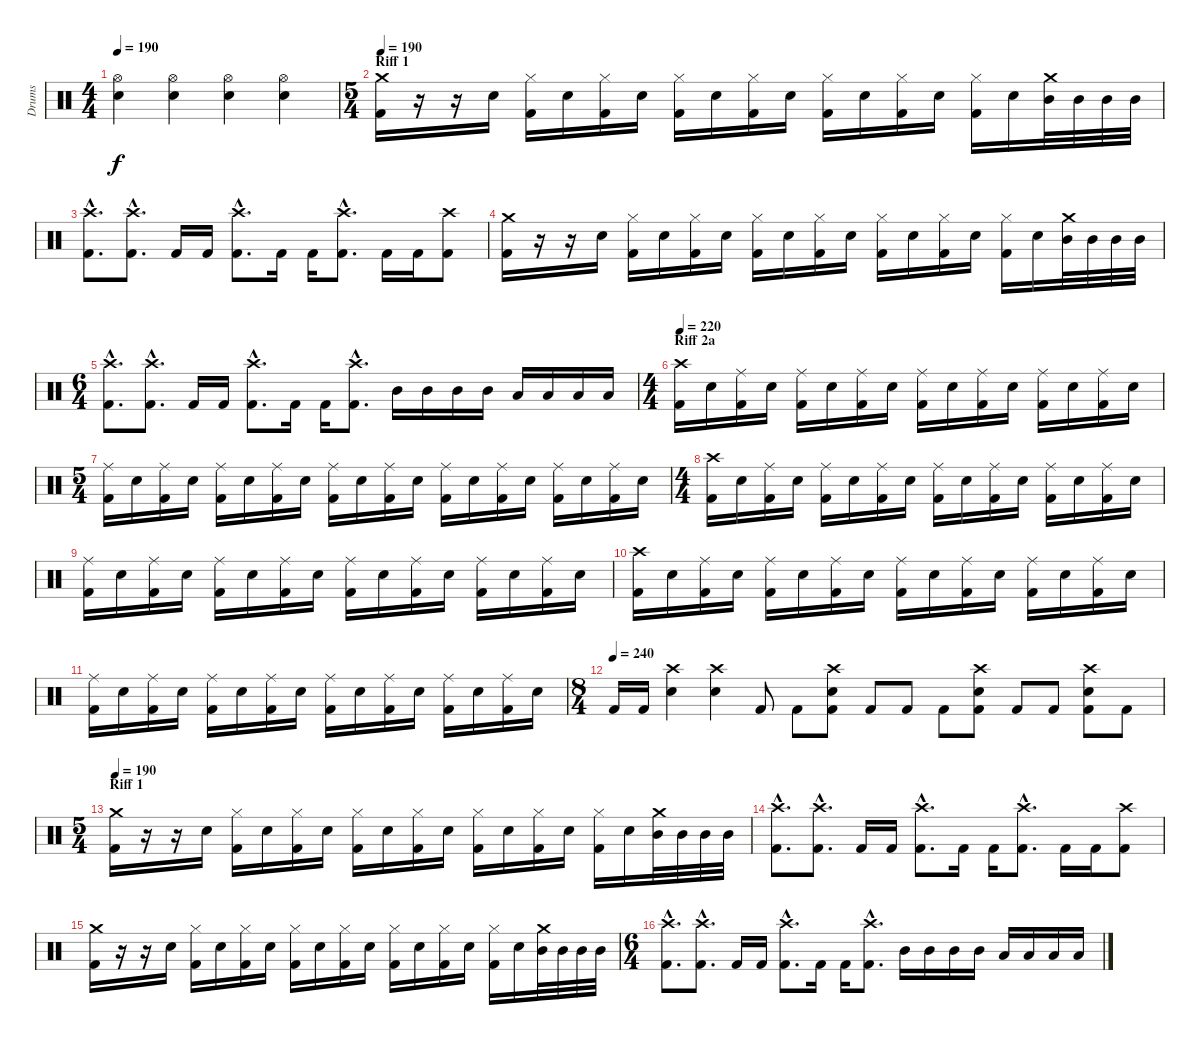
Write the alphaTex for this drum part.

\track ("Drums" "Drums") {instrument percussion}
\staff {score}
\articulation defaults
\ts (4 4)
\tempo 190
\clef neutral
\ks c
("Hi-Hat (open)" "Electric Snare (hit)").4{dy f} ("Hi-Hat (open)" "Electric Snare (hit)").4 ("Hi-Hat (open)" "Electric Snare (hit)").4 ("Hi-Hat (open)" "Electric Snare (hit)").4 |
\ts (5 4)
\section ("" "Riff 1")
\tempo 190
("Crash medium (hit)" "Kick (hit) 2").16 r.16 r.16 "Electric Snare (hit)".16 ("Hi-Hat (closed)" "Kick (hit) 2").16 "Electric Snare (hit)".16 ("Hi-Hat (closed)" "Kick (hit) 2").16 "Electric Snare (hit)".16 ("Hi-Hat (closed)" "Kick (hit) 2").16 "Electric Snare (hit)".16 ("Hi-Hat (closed)" "Kick (hit) 2").16 "Electric Snare (hit)".16 ("Hi-Hat (closed)" "Kick (hit) 2").16 "Electric Snare (hit)".16 ("Hi-Hat (closed)" "Kick (hit) 2").16 "Electric Snare (hit)".16 ("Hi-Hat (closed)" "Kick (hit) 2").16 "Electric Snare (hit)".16 ("Crash medium (hit)" "Mid Tom (hit)").32 "Mid Tom (hit)".32 "Mid Tom (hit)".32 "Mid Tom (hit)".32 |
("Crash high (hit)"{hac} "Kick (hit) 2"{hac}).8{d} ("Crash high (hit)"{hac} "Kick (hit) 2"{hac}).8{d} "Kick (hit) 2".16 "Kick (hit) 2".16 ("Crash high (hit)"{hac} "Kick (hit) 2"{hac}).8{d} "Kick (hit) 2".16 "Kick (hit) 2".16 ("Crash high (hit)"{hac} "Kick (hit) 2"{hac}).8{d} "Kick (hit) 2".16 "Kick (hit) 2".16 ("Crash high (hit)" "Kick (hit) 2").8 |
("Crash medium (hit)" "Kick (hit) 2").16 r.16 r.16 "Electric Snare (hit)".16 ("Hi-Hat (closed)" "Kick (hit) 2").16 "Electric Snare (hit)".16 ("Hi-Hat (closed)" "Kick (hit) 2").16 "Electric Snare (hit)".16 ("Hi-Hat (closed)" "Kick (hit) 2").16 "Electric Snare (hit)".16 ("Hi-Hat (closed)" "Kick (hit) 2").16 "Electric Snare (hit)".16 ("Hi-Hat (closed)" "Kick (hit) 2").16 "Electric Snare (hit)".16 ("Hi-Hat (closed)" "Kick (hit) 2").16 "Electric Snare (hit)".16 ("Hi-Hat (closed)" "Kick (hit) 2").16 "Electric Snare (hit)".16 ("Crash medium (hit)" "Mid Tom (hit)").32 "Mid Tom (hit)".32 "Mid Tom (hit)".32 "Mid Tom (hit)".32 |
\ts (6 4)
("Crash high (hit)"{hac} "Kick (hit) 2"{hac}).8{d} ("Crash high (hit)"{hac} "Kick (hit) 2"{hac}).8{d} "Kick (hit) 2".16 "Kick (hit) 2".16 ("Crash high (hit)"{hac} "Kick (hit) 2"{hac}).8{d} "Kick (hit) 2".16 "Kick (hit) 2".16 ("Crash high (hit)"{hac} "Kick (hit) 2"{hac}).8{d} "Mid Tom (hit)".16 "Mid Tom (hit)".16 "Mid Tom (hit)".16 "Mid Tom (hit)".16 "Low Tom (hit)".16 "Low Tom (hit)".16 "Low Tom (hit)".16 "Low Tom (hit)".16 |
\ts (4 4)
\section ("" "Riff 2a")
\tempo 220
("Crash high (hit)" "Kick (hit) 2").16 "Electric Snare (hit)".16 ("Ride (middle)" "Kick (hit) 2").16 "Electric Snare (hit)".16 ("Ride (middle)" "Kick (hit) 2").16 "Electric Snare (hit)".16 ("Ride (middle)" "Kick (hit) 2").16 "Electric Snare (hit)".16 ("Ride (middle)" "Kick (hit) 2").16 "Electric Snare (hit)".16 ("Ride (middle)" "Kick (hit) 2").16 "Electric Snare (hit)".16 ("Ride (middle)" "Kick (hit) 2").16 "Electric Snare (hit)".16 ("Ride (middle)" "Kick (hit) 2").16 "Electric Snare (hit)".16 |
\ts (5 4)
("Ride (middle)" "Kick (hit) 2").16 "Electric Snare (hit)".16 ("Ride (middle)" "Kick (hit) 2").16 "Electric Snare (hit)".16 ("Ride (middle)" "Kick (hit) 2").16 "Electric Snare (hit)".16 ("Ride (middle)" "Kick (hit) 2").16 "Electric Snare (hit)".16 ("Ride (middle)" "Kick (hit) 2").16 "Electric Snare (hit)".16 ("Ride (middle)" "Kick (hit) 2").16 "Electric Snare (hit)".16 ("Ride (middle)" "Kick (hit) 2").16 "Electric Snare (hit)".16 ("Ride (middle)" "Kick (hit) 2").16 "Electric Snare (hit)".16 ("Ride (middle)" "Kick (hit) 2").16 "Electric Snare (hit)".16 ("Ride (middle)" "Kick (hit) 2").16 "Electric Snare (hit)".16 |
\ts (4 4)
("Crash high (hit)" "Kick (hit) 2").16 "Electric Snare (hit)".16 ("Ride (middle)" "Kick (hit) 2").16 "Electric Snare (hit)".16 ("Ride (middle)" "Kick (hit) 2").16 "Electric Snare (hit)".16 ("Ride (middle)" "Kick (hit) 2").16 "Electric Snare (hit)".16 ("Ride (middle)" "Kick (hit) 2").16 "Electric Snare (hit)".16 ("Ride (middle)" "Kick (hit) 2").16 "Electric Snare (hit)".16 ("Ride (middle)" "Kick (hit) 2").16 "Electric Snare (hit)".16 ("Ride (middle)" "Kick (hit) 2").16 "Electric Snare (hit)".16 |
("Ride (middle)" "Kick (hit) 2").16 "Electric Snare (hit)".16 ("Ride (middle)" "Kick (hit) 2").16 "Electric Snare (hit)".16 ("Ride (middle)" "Kick (hit) 2").16 "Electric Snare (hit)".16 ("Ride (middle)" "Kick (hit) 2").16 "Electric Snare (hit)".16 ("Ride (middle)" "Kick (hit) 2").16 "Electric Snare (hit)".16 ("Ride (middle)" "Kick (hit) 2").16 "Electric Snare (hit)".16 ("Ride (middle)" "Kick (hit) 2").16 "Electric Snare (hit)".16 ("Ride (middle)" "Kick (hit) 2").16 "Electric Snare (hit)".16 |
("Crash high (hit)" "Kick (hit) 2").16 "Electric Snare (hit)".16 ("Ride (middle)" "Kick (hit) 2").16 "Electric Snare (hit)".16 ("Ride (middle)" "Kick (hit) 2").16 "Electric Snare (hit)".16 ("Ride (middle)" "Kick (hit) 2").16 "Electric Snare (hit)".16 ("Ride (middle)" "Kick (hit) 2").16 "Electric Snare (hit)".16 ("Ride (middle)" "Kick (hit) 2").16 "Electric Snare (hit)".16 ("Ride (middle)" "Kick (hit) 2").16 "Electric Snare (hit)".16 ("Ride (middle)" "Kick (hit) 2").16 "Electric Snare (hit)".16 |
("Ride (middle)" "Kick (hit) 2").16 "Electric Snare (hit)".16 ("Ride (middle)" "Kick (hit) 2").16 "Electric Snare (hit)".16 ("Ride (middle)" "Kick (hit) 2").16 "Electric Snare (hit)".16 ("Ride (middle)" "Kick (hit) 2").16 "Electric Snare (hit)".16 ("Ride (middle)" "Kick (hit) 2").16 "Electric Snare (hit)".16 ("Ride (middle)" "Kick (hit) 2").16 "Electric Snare (hit)".16 ("Ride (middle)" "Kick (hit) 2").16 "Electric Snare (hit)".16 ("Ride (middle)" "Kick (hit) 2").16 "Electric Snare (hit)".16 |
\ts (8 4)
\tempo (240)
"Kick (hit) 2".16 "Kick (hit) 2".16 ("Crash high (hit)" "Electric Snare (hit)").4 ("Crash high (hit)" "Electric Snare (hit)").4 "Kick (hit) 2".8 "Kick (hit) 2".8 ("Crash high (hit)" "Electric Snare (hit)" "Kick (hit) 2").8 "Kick (hit) 2".8 "Kick (hit) 2".8 "Kick (hit) 2".8 ("Crash high (hit)" "Electric Snare (hit)" "Kick (hit) 2").8 "Kick (hit) 2".8 "Kick (hit) 2".8 ("Crash high (hit)" "Electric Snare (hit)" "Kick (hit) 2").8 "Kick (hit) 2".8 |
\ts (5 4)
\section ("" "Riff 1")
\tempo 190
("Crash medium (hit)" "Kick (hit) 2").16 r.16 r.16 "Electric Snare (hit)".16 ("Hi-Hat (closed)" "Kick (hit) 2").16 "Electric Snare (hit)".16 ("Hi-Hat (closed)" "Kick (hit) 2").16 "Electric Snare (hit)".16 ("Hi-Hat (closed)" "Kick (hit) 2").16 "Electric Snare (hit)".16 ("Hi-Hat (closed)" "Kick (hit) 2").16 "Electric Snare (hit)".16 ("Hi-Hat (closed)" "Kick (hit) 2").16 "Electric Snare (hit)".16 ("Hi-Hat (closed)" "Kick (hit) 2").16 "Electric Snare (hit)".16 ("Hi-Hat (closed)" "Kick (hit) 2").16 "Electric Snare (hit)".16 ("Crash medium (hit)" "Mid Tom (hit)").32 "Mid Tom (hit)".32 "Mid Tom (hit)".32 "Mid Tom (hit)".32 |
("Crash high (hit)"{hac} "Kick (hit) 2"{hac}).8{d} ("Crash high (hit)"{hac} "Kick (hit) 2"{hac}).8{d} "Kick (hit) 2".16 "Kick (hit) 2".16 ("Crash high (hit)"{hac} "Kick (hit) 2"{hac}).8{d} "Kick (hit) 2".16 "Kick (hit) 2".16 ("Crash high (hit)"{hac} "Kick (hit) 2"{hac}).8{d} "Kick (hit) 2".16 "Kick (hit) 2".16 ("Crash high (hit)" "Kick (hit) 2").8 |
("Crash medium (hit)" "Kick (hit) 2").16 r.16 r.16 "Electric Snare (hit)".16 ("Hi-Hat (closed)" "Kick (hit) 2").16 "Electric Snare (hit)".16 ("Hi-Hat (closed)" "Kick (hit) 2").16 "Electric Snare (hit)".16 ("Hi-Hat (closed)" "Kick (hit) 2").16 "Electric Snare (hit)".16 ("Hi-Hat (closed)" "Kick (hit) 2").16 "Electric Snare (hit)".16 ("Hi-Hat (closed)" "Kick (hit) 2").16 "Electric Snare (hit)".16 ("Hi-Hat (closed)" "Kick (hit) 2").16 "Electric Snare (hit)".16 ("Hi-Hat (closed)" "Kick (hit) 2").16 "Electric Snare (hit)".16 ("Crash medium (hit)" "Mid Tom (hit)").32 "Mid Tom (hit)".32 "Mid Tom (hit)".32 "Mid Tom (hit)".32 |
\ts (6 4)
("Crash high (hit)"{hac} "Kick (hit) 2"{hac}).8{d} ("Crash high (hit)"{hac} "Kick (hit) 2"{hac}).8{d} "Kick (hit) 2".16 "Kick (hit) 2".16 ("Crash high (hit)"{hac} "Kick (hit) 2"{hac}).8{d} "Kick (hit) 2".16 "Kick (hit) 2".16 ("Crash high (hit)"{hac} "Kick (hit) 2"{hac}).8{d} "Mid Tom (hit)".16 "Mid Tom (hit)".16 "Mid Tom (hit)".16 "Mid Tom (hit)".16 "Low Tom (hit)".16 "Low Tom (hit)".16 "Low Tom (hit)".16 "Low Tom (hit)".16
